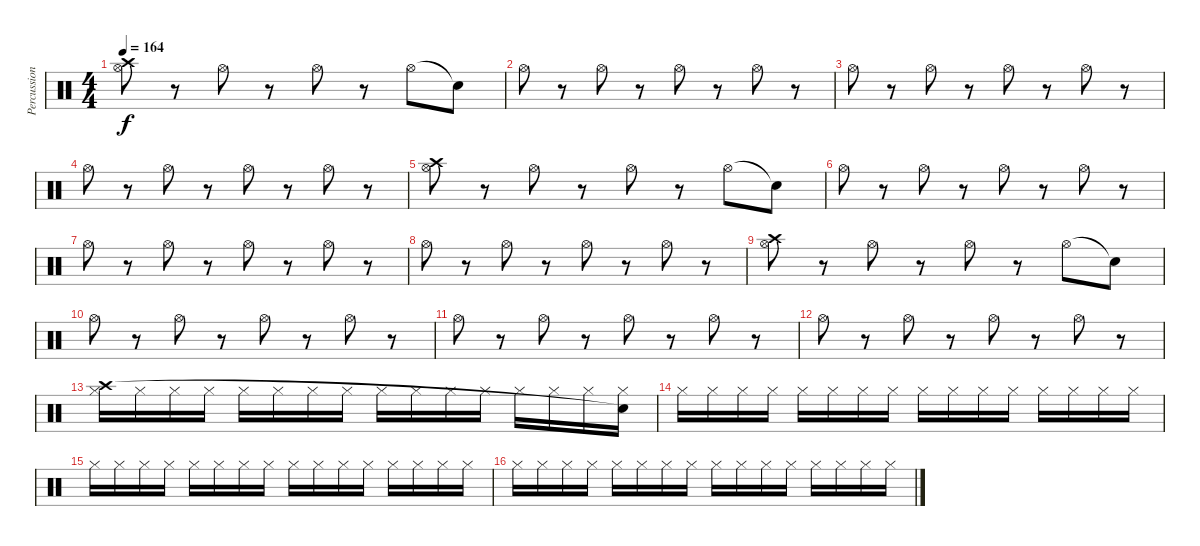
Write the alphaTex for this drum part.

\track ("Percussion" "Percussion") {instrument percussion}
\staff {score}
\articulation defaults
\ts (4 4)
\tempo 164
\clef neutral
\ks c
("Hi-Hat (open)" "Crash high (hit)").8{dy f} r.8 "Hi-Hat (open)".8 r.8 "Hi-Hat (open)".8 r.8 "Hi-Hat (open)".8 "Snare (hit)"{t}.8 |
"Hi-Hat (open)".8 r.8 "Hi-Hat (open)".8 r.8 "Hi-Hat (open)".8 r.8 "Hi-Hat (open)".8 r.8 |
"Hi-Hat (open)".8 r.8 "Hi-Hat (open)".8 r.8 "Hi-Hat (open)".8 r.8 "Hi-Hat (open)".8 r.8 |
"Hi-Hat (open)".8 r.8 "Hi-Hat (open)".8 r.8 "Hi-Hat (open)".8 r.8 "Hi-Hat (open)".8 r.8 |
("Hi-Hat (open)" "Crash high (hit)").8 r.8 "Hi-Hat (open)".8 r.8 "Hi-Hat (open)".8 r.8 "Hi-Hat (open)".8 "Snare (hit)"{t}.8 |
"Hi-Hat (open)".8 r.8 "Hi-Hat (open)".8 r.8 "Hi-Hat (open)".8 r.8 "Hi-Hat (open)".8 r.8 |
"Hi-Hat (open)".8 r.8 "Hi-Hat (open)".8 r.8 "Hi-Hat (open)".8 r.8 "Hi-Hat (open)".8 r.8 |
"Hi-Hat (open)".8 r.8 "Hi-Hat (open)".8 r.8 "Hi-Hat (open)".8 r.8 "Hi-Hat (open)".8 r.8 |
("Hi-Hat (open)" "Crash high (hit)").8 r.8 "Hi-Hat (open)".8 r.8 "Hi-Hat (open)".8 r.8 "Hi-Hat (open)".8 "Snare (hit)"{t}.8 |
"Hi-Hat (open)".8 r.8 "Hi-Hat (open)".8 r.8 "Hi-Hat (open)".8 r.8 "Hi-Hat (open)".8 r.8 |
"Hi-Hat (open)".8 r.8 "Hi-Hat (open)".8 r.8 "Hi-Hat (open)".8 r.8 "Hi-Hat (open)".8 r.8 |
"Hi-Hat (open)".8 r.8 "Hi-Hat (open)".8 r.8 "Hi-Hat (open)".8 r.8 "Hi-Hat (open)".8 r.8 |
("Hi-Hat (closed)" "Crash high (hit)").16 "Hi-Hat (closed)".16 "Hi-Hat (closed)".16 "Hi-Hat (closed)".16 "Hi-Hat (closed)".16 "Hi-Hat (closed)".16 "Hi-Hat (closed)".16 "Hi-Hat (closed)".16 "Hi-Hat (closed)".16 "Hi-Hat (closed)".16 "Hi-Hat (closed)".16 "Hi-Hat (closed)".16 "Hi-Hat (closed)".16 "Hi-Hat (closed)".16 "Hi-Hat (closed)".16 ("Hi-Hat (closed)" "Snare (hit)"{t}).16 |
"Hi-Hat (closed)".16 "Hi-Hat (closed)".16 "Hi-Hat (closed)".16 "Hi-Hat (closed)".16 "Hi-Hat (closed)".16 "Hi-Hat (closed)".16 "Hi-Hat (closed)".16 "Hi-Hat (closed)".16 "Hi-Hat (closed)".16 "Hi-Hat (closed)".16 "Hi-Hat (closed)".16 "Hi-Hat (closed)".16 "Hi-Hat (closed)".16 "Hi-Hat (closed)".16 "Hi-Hat (closed)".16 "Hi-Hat (closed)".16 |
"Hi-Hat (closed)".16 "Hi-Hat (closed)".16 "Hi-Hat (closed)".16 "Hi-Hat (closed)".16 "Hi-Hat (closed)".16 "Hi-Hat (closed)".16 "Hi-Hat (closed)".16 "Hi-Hat (closed)".16 "Hi-Hat (closed)".16 "Hi-Hat (closed)".16 "Hi-Hat (closed)".16 "Hi-Hat (closed)".16 "Hi-Hat (closed)".16 "Hi-Hat (closed)".16 "Hi-Hat (closed)".16 "Hi-Hat (closed)".16 |
"Hi-Hat (closed)".16 "Hi-Hat (closed)".16 "Hi-Hat (closed)".16 "Hi-Hat (closed)".16 "Hi-Hat (closed)".16 "Hi-Hat (closed)".16 "Hi-Hat (closed)".16 "Hi-Hat (closed)".16 "Hi-Hat (closed)".16 "Hi-Hat (closed)".16 "Hi-Hat (closed)".16 "Hi-Hat (closed)".16 "Hi-Hat (closed)".16 "Hi-Hat (closed)".16 "Hi-Hat (closed)".16 "Hi-Hat (closed)".16
